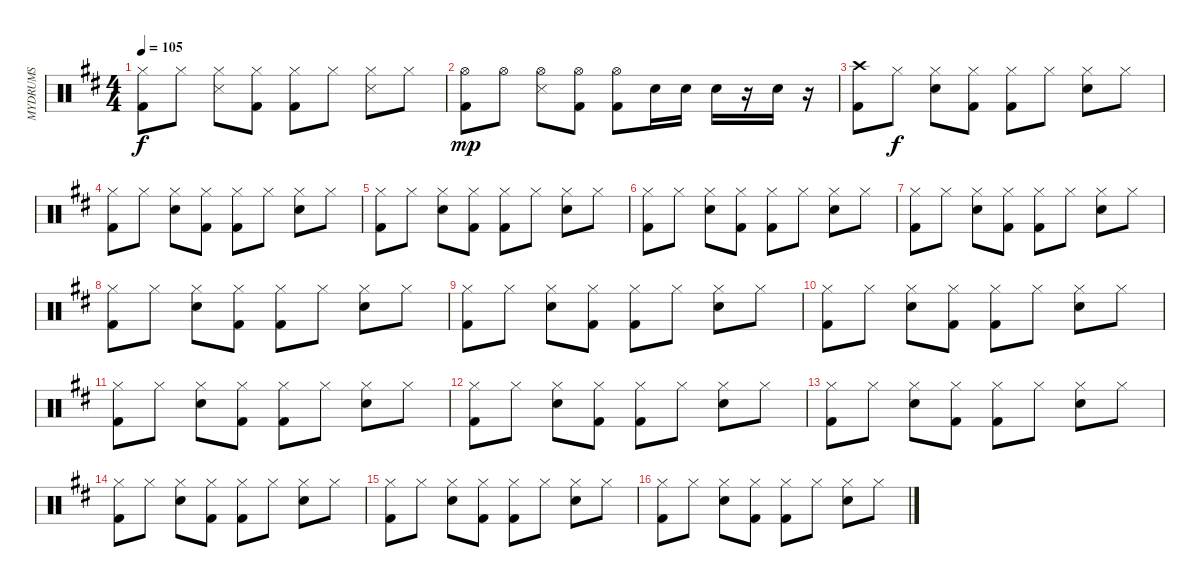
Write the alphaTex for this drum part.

\track ("MYDRUMS" "MYDRUMS") {solo instrument percussion}
\staff {score}
\articulation defaults
\ts (4 4)
\tempo 105
\clef neutral
\ks d
("Hi-Hat (closed)" "Kick (hit) 2").8{dy f} "Hi-Hat (closed)".8 ("Hi-Hat (closed)" "Snare (side stick) 3").8 ("Hi-Hat (closed)" "Kick (hit) 2").8 ("Hi-Hat (closed)" "Kick (hit) 2").8 "Hi-Hat (closed)".8 ("Hi-Hat (closed)" "Snare (side stick) 3").8 "Hi-Hat (closed)".8 |
("Hi-Hat (open)" "Kick (hit) 2").8{dy mp} "Hi-Hat (open)".8 ("Hi-Hat (open)" "Snare (side stick) 3").8 ("Hi-Hat (open)" "Kick (hit) 2").8 ("Hi-Hat (open)" "Kick (hit) 2").8 "Snare (hit) 2".16 "Snare (hit) 2".16 "Snare (hit) 2".16 r.16 "Snare (hit) 2".16 r.16 |
("Crash high (hit)" "Kick (hit) 2").8 "Hi-Hat (closed)".8{dy f} ("Hi-Hat (closed)" "Snare (hit) 2").8 ("Hi-Hat (closed)" "Kick (hit) 2").8 ("Hi-Hat (closed)" "Kick (hit) 2").8 "Hi-Hat (closed)".8 ("Hi-Hat (closed)" "Snare (hit) 2").8 "Hi-Hat (closed)".8 |
("Hi-Hat (closed)" "Kick (hit) 2").8 "Hi-Hat (closed)".8 ("Hi-Hat (closed)" "Snare (hit) 2").8 ("Hi-Hat (closed)" "Kick (hit) 2").8 ("Hi-Hat (closed)" "Kick (hit) 2").8 "Hi-Hat (closed)".8 ("Hi-Hat (closed)" "Snare (hit) 2").8 "Hi-Hat (closed)".8 |
("Hi-Hat (closed)" "Kick (hit) 2").8 "Hi-Hat (closed)".8 ("Hi-Hat (closed)" "Snare (hit) 2").8 ("Hi-Hat (closed)" "Kick (hit) 2").8 ("Hi-Hat (closed)" "Kick (hit) 2").8 "Hi-Hat (closed)".8 ("Hi-Hat (closed)" "Snare (hit) 2").8 "Hi-Hat (closed)".8 |
("Hi-Hat (closed)" "Kick (hit) 2").8 "Hi-Hat (closed)".8 ("Hi-Hat (closed)" "Snare (hit) 2").8 ("Hi-Hat (closed)" "Kick (hit) 2").8 ("Hi-Hat (closed)" "Kick (hit) 2").8 "Hi-Hat (closed)".8 ("Hi-Hat (closed)" "Snare (hit) 2").8 "Hi-Hat (closed)".8 |
("Hi-Hat (closed)" "Kick (hit) 2").8 "Hi-Hat (closed)".8 ("Hi-Hat (closed)" "Snare (hit) 2").8 ("Hi-Hat (closed)" "Kick (hit) 2").8 ("Hi-Hat (closed)" "Kick (hit) 2").8 "Hi-Hat (closed)".8 ("Hi-Hat (closed)" "Snare (hit) 2").8 "Hi-Hat (closed)".8 |
("Hi-Hat (closed)" "Kick (hit) 2").8 "Hi-Hat (closed)".8 ("Hi-Hat (closed)" "Snare (hit) 2").8 ("Hi-Hat (closed)" "Kick (hit) 2").8 ("Hi-Hat (closed)" "Kick (hit) 2").8 "Hi-Hat (closed)".8 ("Hi-Hat (closed)" "Snare (hit) 2").8 "Hi-Hat (closed)".8 |
("Hi-Hat (closed)" "Kick (hit) 2").8 "Hi-Hat (closed)".8 ("Hi-Hat (closed)" "Snare (hit) 2").8 ("Hi-Hat (closed)" "Kick (hit) 2").8 ("Hi-Hat (closed)" "Kick (hit) 2").8 "Hi-Hat (closed)".8 ("Hi-Hat (closed)" "Snare (hit) 2").8 "Hi-Hat (closed)".8 |
("Hi-Hat (closed)" "Kick (hit) 2").8 "Hi-Hat (closed)".8 ("Hi-Hat (closed)" "Snare (hit) 2").8 ("Hi-Hat (closed)" "Kick (hit) 2").8 ("Hi-Hat (closed)" "Kick (hit) 2").8 "Hi-Hat (closed)".8 ("Hi-Hat (closed)" "Snare (hit) 2").8 "Hi-Hat (closed)".8 |
("Hi-Hat (closed)" "Kick (hit) 2").8 "Hi-Hat (closed)".8 ("Hi-Hat (closed)" "Snare (hit) 2").8 ("Hi-Hat (closed)" "Kick (hit) 2").8 ("Hi-Hat (closed)" "Kick (hit) 2").8 "Hi-Hat (closed)".8 ("Hi-Hat (closed)" "Snare (hit) 2").8 "Hi-Hat (closed)".8 |
("Hi-Hat (closed)" "Kick (hit) 2").8 "Hi-Hat (closed)".8 ("Hi-Hat (closed)" "Snare (hit) 2").8 ("Hi-Hat (closed)" "Kick (hit) 2").8 ("Hi-Hat (closed)" "Kick (hit) 2").8 "Hi-Hat (closed)".8 ("Hi-Hat (closed)" "Snare (hit) 2").8 "Hi-Hat (closed)".8 |
("Hi-Hat (closed)" "Kick (hit) 2").8 "Hi-Hat (closed)".8 ("Hi-Hat (closed)" "Snare (hit) 2").8 ("Hi-Hat (closed)" "Kick (hit) 2").8 ("Hi-Hat (closed)" "Kick (hit) 2").8 "Hi-Hat (closed)".8 ("Hi-Hat (closed)" "Snare (hit) 2").8 "Hi-Hat (closed)".8 |
("Hi-Hat (closed)" "Kick (hit) 2").8 "Hi-Hat (closed)".8 ("Hi-Hat (closed)" "Snare (hit) 2").8 ("Hi-Hat (closed)" "Kick (hit) 2").8 ("Hi-Hat (closed)" "Kick (hit) 2").8 "Hi-Hat (closed)".8 ("Hi-Hat (closed)" "Snare (hit) 2").8 "Hi-Hat (closed)".8 |
("Hi-Hat (closed)" "Kick (hit) 2").8 "Hi-Hat (closed)".8 ("Hi-Hat (closed)" "Snare (hit) 2").8 ("Hi-Hat (closed)" "Kick (hit) 2").8 ("Hi-Hat (closed)" "Kick (hit) 2").8 "Hi-Hat (closed)".8 ("Hi-Hat (closed)" "Snare (hit) 2").8 "Hi-Hat (closed)".8 |
("Hi-Hat (closed)" "Kick (hit) 2").8 "Hi-Hat (closed)".8 ("Hi-Hat (closed)" "Snare (hit) 2").8 ("Hi-Hat (closed)" "Kick (hit) 2").8 ("Hi-Hat (closed)" "Kick (hit) 2").8 "Hi-Hat (closed)".8 ("Hi-Hat (closed)" "Snare (hit) 2").8 "Hi-Hat (closed)".8
